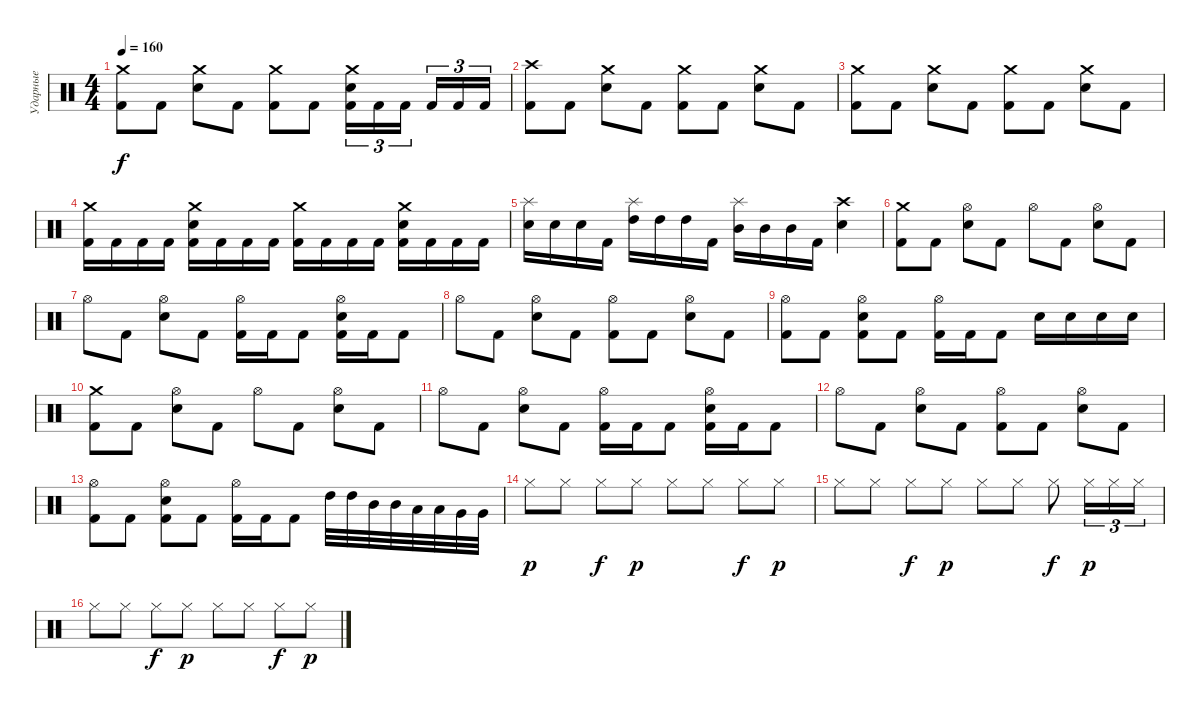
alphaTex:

\track ("Ударные" "Ударные") {instrument percussion}
\staff {score}
\articulation defaults
\ts (4 4)
\tempo 160
\clef neutral
\ks c
("Crash medium (hit)" "Kick (hit) 2").8{dy f} "Kick (hit) 2".8 ("Crash medium (hit)" "Electric Snare (hit)").8 "Kick (hit) 2".8 ("Crash medium (hit)" "Kick (hit) 2").8 "Kick (hit) 2".8 ("Crash medium (hit)" "Electric Snare (hit)" "Kick (hit) 2").16{tu (3 2)} "Kick (hit) 2".16{tu (3 2)} "Kick (hit) 2".16{tu (3 2) beam splitsecondary} "Kick (hit) 2".16{tu (3 2)} "Kick (hit) 2".16{tu (3 2)} "Kick (hit) 2".16{tu (3 2)} |
("Crash high (hit)" "Kick (hit) 2").8 "Kick (hit) 2".8 ("Crash medium (hit)" "Electric Snare (hit)").8 "Kick (hit) 2".8 ("Crash medium (hit)" "Kick (hit) 2").8 "Kick (hit) 2".8 ("Crash medium (hit)" "Electric Snare (hit)").8 "Kick (hit) 2".8 |
("Crash medium (hit)" "Kick (hit) 2").8 "Kick (hit) 2".8 ("Crash medium (hit)" "Electric Snare (hit)").8 "Kick (hit) 2".8 ("Crash medium (hit)" "Kick (hit) 2").8 "Kick (hit) 2".8 ("Crash medium (hit)" "Electric Snare (hit)").8 "Kick (hit) 2".8 |
("Crash medium (hit)" "Kick (hit) 2").16 "Kick (hit) 2".16 "Kick (hit) 2".16 "Kick (hit) 2".16 ("Crash medium (hit)" "Electric Snare (hit)" "Kick (hit) 2").16 "Kick (hit) 2".16 "Kick (hit) 2".16 "Kick (hit) 2".16 ("Crash medium (hit)" "Kick (hit) 2").16 "Kick (hit) 2".16 "Kick (hit) 2".16 "Kick (hit) 2".16 ("Crash medium (hit)" "Electric Snare (hit)" "Kick (hit) 2").16 "Kick (hit) 2".16 "Kick (hit) 2".16 "Kick (hit) 2".16 |
("Electric Snare (hit)" "Splash (hit)").16 "Electric Snare (hit)".16 "Electric Snare (hit)".16 "Kick (hit) 2".16 ("High Tom (hit)" "Splash (hit)").16 "High Tom (hit)".16 "High Tom (hit)".16 "Kick (hit) 2".16 ("Mid Tom (hit)" "Splash (hit)").16 "Mid Tom (hit)".16 "Mid Tom (hit)".16 "Kick (hit) 2".16 ("Crash high (hit)" "Electric Snare (hit)").4 |
("Crash medium (hit)" "Kick (hit) 2").8 "Kick (hit) 2".8 ("Hi-Hat (open)" "Electric Snare (hit)").8 "Kick (hit) 2".8 "Hi-Hat (open)".8 "Kick (hit) 2".8 ("Hi-Hat (open)" "Electric Snare (hit)").8 "Kick (hit) 2".8 |
"Hi-Hat (open)".8 "Kick (hit) 2".8 ("Hi-Hat (open)" "Electric Snare (hit)").8 "Kick (hit) 2".8 ("Hi-Hat (open)" "Kick (hit) 2").16 "Kick (hit) 2".16 "Kick (hit) 2".8 ("Hi-Hat (open)" "Electric Snare (hit)" "Kick (hit) 2").16 "Kick (hit) 2".16 "Kick (hit) 2".8 |
"Hi-Hat (open)".8 "Kick (hit) 2".8 ("Hi-Hat (open)" "Electric Snare (hit)").8 "Kick (hit) 2".8 ("Hi-Hat (open)" "Kick (hit) 2").8 "Kick (hit) 2".8 ("Hi-Hat (open)" "Electric Snare (hit)").8 "Kick (hit) 2".8 |
("Hi-Hat (open)" "Kick (hit) 2").8 "Kick (hit) 2".8 ("Hi-Hat (open)" "Electric Snare (hit)" "Kick (hit) 2").8 "Kick (hit) 2".8 ("Hi-Hat (open)" "Kick (hit) 2").16 "Kick (hit) 2".16 "Kick (hit) 2".8 "Electric Snare (hit)".16 "Electric Snare (hit)".16 "Electric Snare (hit)".16 "Electric Snare (hit)".16 |
("Crash medium (hit)" "Kick (hit) 2").8 "Kick (hit) 2".8 ("Hi-Hat (open)" "Electric Snare (hit)").8 "Kick (hit) 2".8 "Hi-Hat (open)".8 "Kick (hit) 2".8 ("Hi-Hat (open)" "Electric Snare (hit)").8 "Kick (hit) 2".8 |
"Hi-Hat (open)".8 "Kick (hit) 2".8 ("Hi-Hat (open)" "Electric Snare (hit)").8 "Kick (hit) 2".8 ("Hi-Hat (open)" "Kick (hit) 2").16 "Kick (hit) 2".16 "Kick (hit) 2".8 ("Hi-Hat (open)" "Electric Snare (hit)" "Kick (hit) 2").16 "Kick (hit) 2".16 "Kick (hit) 2".8 |
"Hi-Hat (open)".8 "Kick (hit) 2".8 ("Hi-Hat (open)" "Electric Snare (hit)").8 "Kick (hit) 2".8 ("Hi-Hat (open)" "Kick (hit) 2").8 "Kick (hit) 2".8 ("Hi-Hat (open)" "Electric Snare (hit)").8 "Kick (hit) 2".8 |
("Hi-Hat (open)" "Kick (hit) 2").8 "Kick (hit) 2".8 ("Hi-Hat (open)" "Electric Snare (hit)" "Kick (hit) 2").8 "Kick (hit) 2".8 ("Hi-Hat (open)" "Kick (hit) 2").16 "Kick (hit) 2".16 "Kick (hit) 2".8 "High Tom (hit)".32 "High Tom (hit)".32 "Mid Tom (hit)".32 "Mid Tom (hit)".32 "Low Tom (hit)".32 "Low Tom (hit)".32 "Very Low Tom (hit)".32 "Very Low Tom (hit)".32 |
"Hi-Hat (closed)".8{dy p} "Hi-Hat (closed)".8 "Hi-Hat (closed)".8{dy f} "Hi-Hat (closed)".8{dy p} "Hi-Hat (closed)".8 "Hi-Hat (closed)".8 "Hi-Hat (closed)".8{dy f} "Hi-Hat (closed)".8{dy p} |
"Hi-Hat (closed)".8 "Hi-Hat (closed)".8 "Hi-Hat (closed)".8{dy f} "Hi-Hat (closed)".8{dy p} "Hi-Hat (closed)".8 "Hi-Hat (closed)".8 "Hi-Hat (closed)".8{dy f} "Hi-Hat (closed)".16{tu (3 2) dy p} "Hi-Hat (closed)".16{tu (3 2)} "Hi-Hat (closed)".16{tu (3 2)} |
"Hi-Hat (closed)".8 "Hi-Hat (closed)".8 "Hi-Hat (closed)".8{dy f} "Hi-Hat (closed)".8{dy p} "Hi-Hat (closed)".8 "Hi-Hat (closed)".8 "Hi-Hat (closed)".8{dy f} "Hi-Hat (closed)".8{dy p}
